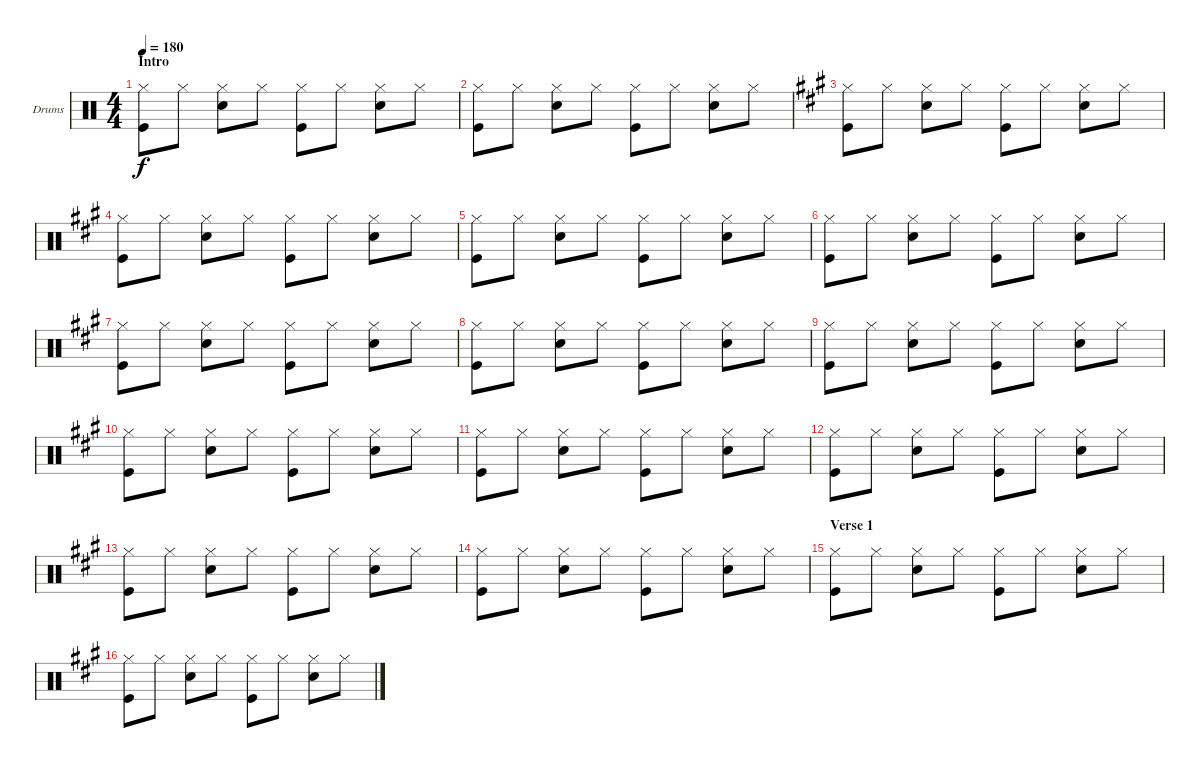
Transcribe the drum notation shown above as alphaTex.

\defaultSystemsLayout 4
\bracketExtendMode groupsimilarinstruments
\firstSystemTrackNameOrientation horizontal
\otherSystemsTrackNameOrientation horizontal
\track ("Drumkit" "Drums") {instrument percussion}
\staff {score}
\articulation defaults
\ts (4 4)
\section ("" "Intro")
\tempo 180
\clef neutral
\ks c
("Hi-Hat (closed)" "Kick (hit)").8{dy f} "Hi-Hat (closed)".8 ("Hi-Hat (closed)" "Snare (hit) 2").8 "Hi-Hat (closed)".8 ("Hi-Hat (closed)" "Kick (hit)").8 "Hi-Hat (closed)".8 ("Hi-Hat (closed)" "Snare (hit) 2").8 "Hi-Hat (closed)".8 |
("Hi-Hat (closed)" "Kick (hit)").8 "Hi-Hat (closed)".8 ("Hi-Hat (closed)" "Snare (hit) 2").8 "Hi-Hat (closed)".8 ("Hi-Hat (closed)" "Kick (hit)").8 "Hi-Hat (closed)".8 ("Hi-Hat (closed)" "Snare (hit) 2").8 "Hi-Hat (closed)".8 |
\ks f#minor
("Hi-Hat (closed)" "Kick (hit)").8 "Hi-Hat (closed)".8 ("Hi-Hat (closed)" "Snare (hit) 2").8 "Hi-Hat (closed)".8 ("Hi-Hat (closed)" "Kick (hit)").8 "Hi-Hat (closed)".8 ("Hi-Hat (closed)" "Snare (hit) 2").8 "Hi-Hat (closed)".8 |
("Hi-Hat (closed)" "Kick (hit)").8 "Hi-Hat (closed)".8 ("Hi-Hat (closed)" "Snare (hit) 2").8 "Hi-Hat (closed)".8 ("Hi-Hat (closed)" "Kick (hit)").8 "Hi-Hat (closed)".8 ("Hi-Hat (closed)" "Snare (hit) 2").8 "Hi-Hat (closed)".8 |
("Hi-Hat (closed)" "Kick (hit)").8 "Hi-Hat (closed)".8 ("Hi-Hat (closed)" "Snare (hit) 2").8 "Hi-Hat (closed)".8 ("Hi-Hat (closed)" "Kick (hit)").8 "Hi-Hat (closed)".8 ("Hi-Hat (closed)" "Snare (hit) 2").8 "Hi-Hat (closed)".8 |
("Hi-Hat (closed)" "Kick (hit)").8 "Hi-Hat (closed)".8 ("Hi-Hat (closed)" "Snare (hit) 2").8 "Hi-Hat (closed)".8 ("Hi-Hat (closed)" "Kick (hit)").8 "Hi-Hat (closed)".8 ("Hi-Hat (closed)" "Snare (hit) 2").8 "Hi-Hat (closed)".8 |
("Hi-Hat (closed)" "Kick (hit)").8 "Hi-Hat (closed)".8 ("Hi-Hat (closed)" "Snare (hit) 2").8 "Hi-Hat (closed)".8 ("Hi-Hat (closed)" "Kick (hit)").8 "Hi-Hat (closed)".8 ("Hi-Hat (closed)" "Snare (hit) 2").8 "Hi-Hat (closed)".8 |
("Hi-Hat (closed)" "Kick (hit)").8 "Hi-Hat (closed)".8 ("Hi-Hat (closed)" "Snare (hit) 2").8 "Hi-Hat (closed)".8 ("Hi-Hat (closed)" "Kick (hit)").8 "Hi-Hat (closed)".8 ("Hi-Hat (closed)" "Snare (hit) 2").8 "Hi-Hat (closed)".8 |
("Hi-Hat (closed)" "Kick (hit)").8 "Hi-Hat (closed)".8 ("Hi-Hat (closed)" "Snare (hit) 2").8 "Hi-Hat (closed)".8 ("Hi-Hat (closed)" "Kick (hit)").8 "Hi-Hat (closed)".8 ("Hi-Hat (closed)" "Snare (hit) 2").8 "Hi-Hat (closed)".8 |
("Hi-Hat (closed)" "Kick (hit)").8 "Hi-Hat (closed)".8 ("Hi-Hat (closed)" "Snare (hit) 2").8 "Hi-Hat (closed)".8 ("Hi-Hat (closed)" "Kick (hit)").8 "Hi-Hat (closed)".8 ("Hi-Hat (closed)" "Snare (hit) 2").8 "Hi-Hat (closed)".8 |
("Hi-Hat (closed)" "Kick (hit)").8 "Hi-Hat (closed)".8 ("Hi-Hat (closed)" "Snare (hit) 2").8 "Hi-Hat (closed)".8 ("Hi-Hat (closed)" "Kick (hit)").8 "Hi-Hat (closed)".8 ("Hi-Hat (closed)" "Snare (hit) 2").8 "Hi-Hat (closed)".8 |
("Hi-Hat (closed)" "Kick (hit)").8 "Hi-Hat (closed)".8 ("Hi-Hat (closed)" "Snare (hit) 2").8 "Hi-Hat (closed)".8 ("Hi-Hat (closed)" "Kick (hit)").8 "Hi-Hat (closed)".8 ("Hi-Hat (closed)" "Snare (hit) 2").8 "Hi-Hat (closed)".8 |
("Hi-Hat (closed)" "Kick (hit)").8 "Hi-Hat (closed)".8 ("Hi-Hat (closed)" "Snare (hit) 2").8 "Hi-Hat (closed)".8 ("Hi-Hat (closed)" "Kick (hit)").8 "Hi-Hat (closed)".8 ("Hi-Hat (closed)" "Snare (hit) 2").8 "Hi-Hat (closed)".8 |
("Hi-Hat (closed)" "Kick (hit)").8 "Hi-Hat (closed)".8 ("Hi-Hat (closed)" "Snare (hit) 2").8 "Hi-Hat (closed)".8 ("Hi-Hat (closed)" "Kick (hit)").8 "Hi-Hat (closed)".8 ("Hi-Hat (closed)" "Snare (hit) 2").8 "Hi-Hat (closed)".8 |
\section ("" "Verse 1")
("Hi-Hat (closed)" "Kick (hit)").8 "Hi-Hat (closed)".8 ("Hi-Hat (closed)" "Snare (hit) 2").8 "Hi-Hat (closed)".8 ("Hi-Hat (closed)" "Kick (hit)").8 "Hi-Hat (closed)".8 ("Hi-Hat (closed)" "Snare (hit) 2").8 "Hi-Hat (closed)".8 |
("Hi-Hat (closed)" "Kick (hit)").8 "Hi-Hat (closed)".8 ("Hi-Hat (closed)" "Snare (hit) 2").8 "Hi-Hat (closed)".8 ("Hi-Hat (closed)" "Kick (hit)").8 "Hi-Hat (closed)".8 ("Hi-Hat (closed)" "Snare (hit) 2").8 "Hi-Hat (closed)".8
